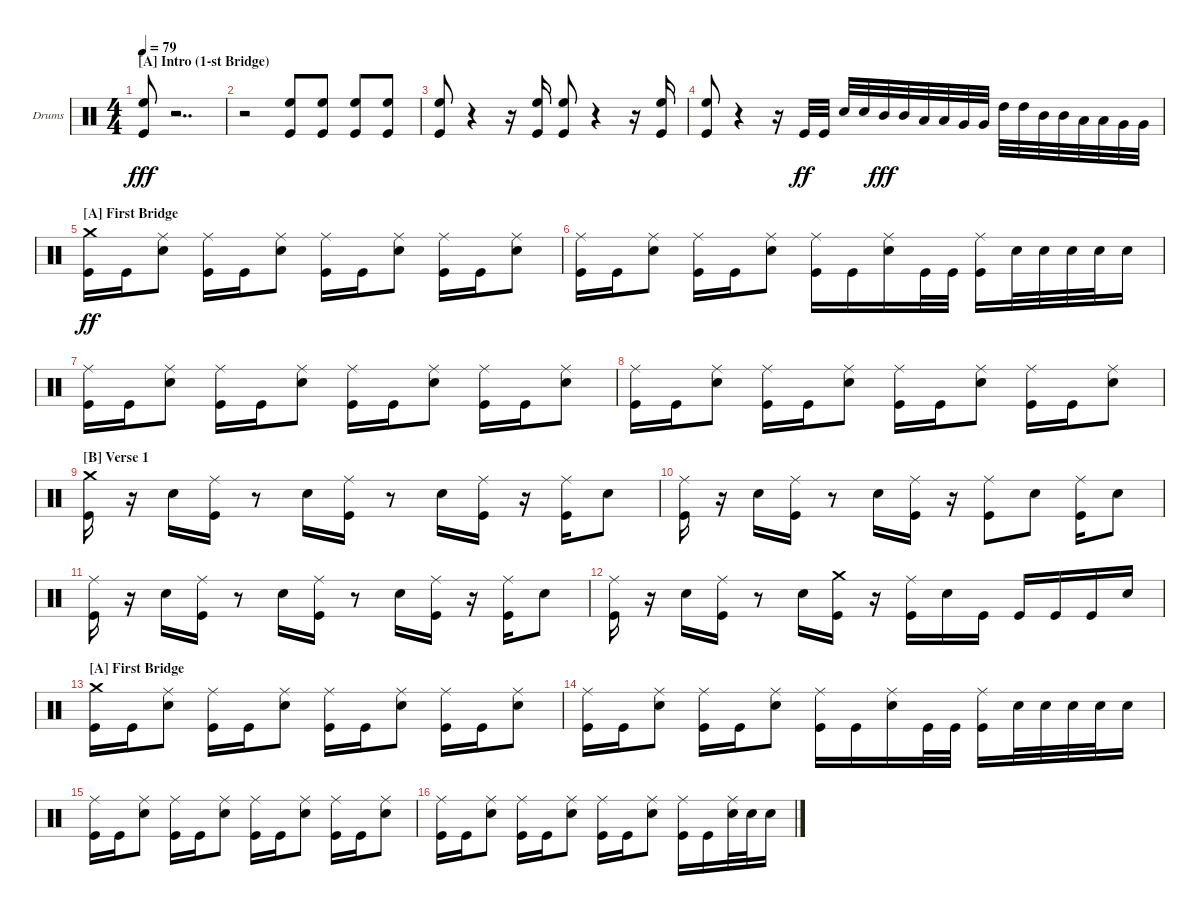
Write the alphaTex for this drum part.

\bracketExtendMode groupsimilarinstruments
\firstSystemTrackNameOrientation horizontal
\otherSystemsTrackNameOrientation horizontal
\track ("Drums" "Drums") {instrument percussion}
\staff {score}
\articulation defaults
\ts (4 4)
\section ("A" "Intro (1-st Bridge)")
\tempo 79
\clef neutral
\ks c
("Kick (hit)" "High Floor Tom (hit)").8{dy fff} r.2{dd} |
r.2 ("Kick (hit)" "High Floor Tom (hit)").8 ("Kick (hit)" "High Floor Tom (hit)").8 ("Kick (hit)" "High Floor Tom (hit)").8 ("Kick (hit)" "High Floor Tom (hit)").8 |
("Kick (hit)" "High Floor Tom (hit)").8 r.4 r.16 ("Kick (hit)" "High Floor Tom (hit)").16 ("Kick (hit)" "High Floor Tom (hit)").8 r.4 r.16 ("Kick (hit)" "High Floor Tom (hit)").16 |
("Kick (hit)" "High Floor Tom (hit)").8 r.4 r.16 "Kick (hit)".32{dy ff} "Kick (hit)".32 "Snare (hit) 2".32 "Snare (hit) 2".32 "Mid Tom (hit)".32{dy fff} "Mid Tom (hit)".32 "Low Tom (hit)".32 "Low Tom (hit)".32 "Very Low Tom (hit)".32 "Very Low Tom (hit)".32 "High Tom (hit)".32 "High Tom (hit)".32 "Mid Tom (hit)".32 "Mid Tom (hit)".32 "Low Tom (hit)".32 "Low Tom (hit)".32 "Very Low Tom (hit)".32 "Very Low Tom (hit)".32 |
\section ("A" "First Bridge")
("Kick (hit)" "Crash medium (hit)").16{dy ff} "Kick (hit)".16 ("Snare (hit) 2" "Ride (middle)").8 ("Kick (hit)" "Ride (middle)").16 "Kick (hit)".16 ("Snare (hit) 2" "Ride (middle)").8 ("Kick (hit)" "Ride (middle)").16 "Kick (hit)".16 ("Snare (hit) 2" "Ride (middle)").8 ("Kick (hit)" "Ride (middle)").16 "Kick (hit)".16 ("Snare (hit) 2" "Ride (middle)").8 |
("Kick (hit)" "Ride (middle)").16 "Kick (hit)".16 ("Snare (hit) 2" "Ride (middle)").8 ("Kick (hit)" "Ride (middle)").16 "Kick (hit)".16 ("Snare (hit) 2" "Ride (middle)").8 ("Kick (hit)" "Ride (middle)").16 "Kick (hit)".16 ("Snare (hit) 2" "Ride (middle)").16 "Kick (hit)".32 "Kick (hit)".32 ("Ride (middle)" "Kick (hit)").16 "Snare (hit) 2".32 "Snare (hit) 2".32 "Snare (hit) 2".32 "Snare (hit) 2".32 "Snare (hit) 2".16 |
("Kick (hit)" "Ride (middle)").16 "Kick (hit)".16 ("Snare (hit) 2" "Ride (middle)").8 ("Kick (hit)" "Ride (middle)").16 "Kick (hit)".16 ("Snare (hit) 2" "Ride (middle)").8 ("Kick (hit)" "Ride (middle)").16 "Kick (hit)".16 ("Snare (hit) 2" "Ride (middle)").8 ("Kick (hit)" "Ride (middle)").16 "Kick (hit)".16 ("Snare (hit) 2" "Ride (middle)").8 |
("Kick (hit)" "Ride (middle)").16 "Kick (hit)".16 ("Snare (hit) 2" "Ride (middle)").8 ("Kick (hit)" "Ride (middle)").16 "Kick (hit)".16 ("Snare (hit) 2" "Ride (middle)").8 ("Kick (hit)" "Ride (middle)").16 "Kick (hit)".16 ("Snare (hit) 2" "Ride (middle)").8 ("Kick (hit)" "Ride (middle)").16 "Kick (hit)".16 ("Snare (hit) 2" "Ride (middle)").8 |
\section ("B" "Verse 1")
("Kick (hit)" "Crash medium (hit)").16{beam split} r.16{beam split} "Snare (hit) 2".16 ("Kick (hit)" "Ride (middle)").16 r.8 "Snare (hit) 2".16 ("Kick (hit)" "Ride (middle)").16 r.8 "Snare (hit) 2".16 ("Kick (hit)" "Ride (middle)").16 r.16 ("Kick (hit)" "Ride (middle)").16 "Snare (hit) 2".8 |
("Kick (hit)" "Ride (middle)").16{beam split} r.16{beam split} "Snare (hit) 2".16 ("Kick (hit)" "Ride (middle)").16 r.8 "Snare (hit) 2".16 ("Kick (hit)" "Ride (middle)").16 r.16 ("Kick (hit)" "Ride (middle)").8 "Snare (hit) 2".8 ("Kick (hit)" "Ride (middle)").16 "Snare (hit) 2".8 |
("Kick (hit)" "Ride (middle)").16{beam split} r.16{beam split} "Snare (hit) 2".16 ("Kick (hit)" "Ride (middle)").16 r.8 "Snare (hit) 2".16 ("Kick (hit)" "Ride (middle)").16 r.8 "Snare (hit) 2".16 ("Kick (hit)" "Ride (middle)").16 r.16 ("Kick (hit)" "Ride (middle)").16 "Snare (hit) 2".8 |
("Kick (hit)" "Ride (middle)").16{beam split} r.16{beam split} "Snare (hit) 2".16 ("Kick (hit)" "Ride (middle)").16 r.8 "Snare (hit) 2".16 ("Kick (hit)" "Crash medium (hit)").16 r.16 ("Kick (hit)" "Ride (middle)").16 "Snare (hit) 2".16 "Kick (hit)".16 "Kick (hit)".16 "Kick (hit)".16 "Kick (hit)".16 "Snare (hit) 2".16 |
\section ("A" "First Bridge")
("Kick (hit)" "Crash medium (hit)").16 "Kick (hit)".16 ("Snare (hit) 2" "Ride (middle)").8 ("Kick (hit)" "Ride (middle)").16 "Kick (hit)".16 ("Snare (hit) 2" "Ride (middle)").8 ("Kick (hit)" "Ride (middle)").16 "Kick (hit)".16 ("Snare (hit) 2" "Ride (middle)").8 ("Kick (hit)" "Ride (middle)").16 "Kick (hit)".16 ("Snare (hit) 2" "Ride (middle)").8 |
("Kick (hit)" "Ride (middle)").16 "Kick (hit)".16 ("Snare (hit) 2" "Ride (middle)").8 ("Kick (hit)" "Ride (middle)").16 "Kick (hit)".16 ("Snare (hit) 2" "Ride (middle)").8 ("Kick (hit)" "Ride (middle)").16 "Kick (hit)".16 ("Snare (hit) 2" "Ride (middle)").16 "Kick (hit)".32 "Kick (hit)".32 ("Ride (middle)" "Kick (hit)").16 "Snare (hit) 2".32 "Snare (hit) 2".32 "Snare (hit) 2".32 "Snare (hit) 2".32 "Snare (hit) 2".16 |
("Kick (hit)" "Ride (middle)").16 "Kick (hit)".16 ("Snare (hit) 2" "Ride (middle)").8 ("Kick (hit)" "Ride (middle)").16 "Kick (hit)".16 ("Snare (hit) 2" "Ride (middle)").8 ("Kick (hit)" "Ride (middle)").16 "Kick (hit)".16 ("Snare (hit) 2" "Ride (middle)").8 ("Kick (hit)" "Ride (middle)").16 "Kick (hit)".16 ("Snare (hit) 2" "Ride (middle)").8 |
("Kick (hit)" "Ride (middle)").16 "Kick (hit)".16 ("Snare (hit) 2" "Ride (middle)").8 ("Kick (hit)" "Ride (middle)").16 "Kick (hit)".16 ("Snare (hit) 2" "Ride (middle)").8 ("Kick (hit)" "Ride (middle)").16 "Kick (hit)".16 ("Snare (hit) 2" "Ride (middle)").8 ("Kick (hit)" "Ride (middle)").16 "Kick (hit)".16 ("Snare (hit) 2" "Ride (middle)").32 "Snare (hit) 2".32 "Snare (hit) 2".16
